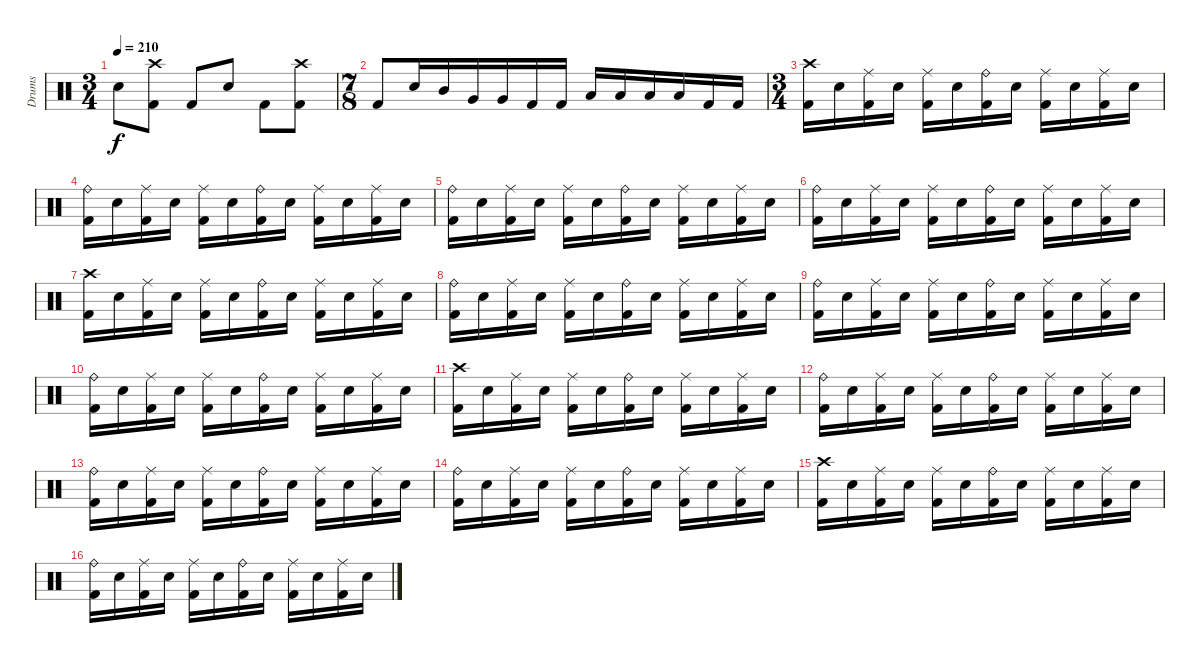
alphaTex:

\track ("Drums" "Drums") {instrument percussion}
\staff {score}
\articulation defaults
\ts (3 4)
\tempo 210
\clef neutral
\ks c "Electric Snare (hit)".8{dy f}
("Crash high (hit)" "Kick (hit) 2").8 "Kick (hit) 2".8 "Electric Snare (hit)".8 "Kick (hit) 2".8 ("Crash high (hit)" "Kick (hit) 2").8 |
\ts (7 8)
"Kick (hit) 2".8 "Electric Snare (hit)".16 "Mid Tom (hit)".16 "Very Low Tom (hit)".16 "Very Low Tom (hit)".16 "Kick (hit) 2".16 "Kick (hit) 2".16 "Low Tom (hit)".16 "Low Tom (hit)".16 "Low Tom (hit)".16 "Low Tom (hit)".16 "Kick (hit) 2".16 "Kick (hit) 2".16 |
\ts (3 4)
("Crash high (hit)" "Kick (hit) 2").16 "Electric Snare (hit)".16 ("Ride (middle)" "Kick (hit) 2").16 "Electric Snare (hit)".16 ("Ride (middle)" "Kick (hit) 2").16 "Electric Snare (hit)".16 ("Ride (bell)" "Kick (hit) 2").16 "Electric Snare (hit)".16 ("Ride (middle)" "Kick (hit) 2").16 "Electric Snare (hit)".16 ("Ride (middle)" "Kick (hit) 2").16 "Electric Snare (hit)".16 |
("Ride (bell)" "Kick (hit) 2").16 "Electric Snare (hit)".16 ("Ride (middle)" "Kick (hit) 2").16 "Electric Snare (hit)".16 ("Ride (middle)" "Kick (hit) 2").16 "Electric Snare (hit)".16 ("Ride (bell)" "Kick (hit) 2").16 "Electric Snare (hit)".16 ("Ride (middle)" "Kick (hit) 2").16 "Electric Snare (hit)".16 ("Ride (middle)" "Kick (hit) 2").16 "Electric Snare (hit)".16 |
("Ride (bell)" "Kick (hit) 2").16 "Electric Snare (hit)".16 ("Ride (middle)" "Kick (hit) 2").16 "Electric Snare (hit)".16 ("Ride (middle)" "Kick (hit) 2").16 "Electric Snare (hit)".16 ("Ride (bell)" "Kick (hit) 2").16 "Electric Snare (hit)".16 ("Ride (middle)" "Kick (hit) 2").16 "Electric Snare (hit)".16 ("Ride (middle)" "Kick (hit) 2").16 "Electric Snare (hit)".16 |
("Ride (bell)" "Kick (hit) 2").16 "Electric Snare (hit)".16 ("Ride (middle)" "Kick (hit) 2").16 "Electric Snare (hit)".16 ("Ride (middle)" "Kick (hit) 2").16 "Electric Snare (hit)".16 ("Ride (bell)" "Kick (hit) 2").16 "Electric Snare (hit)".16 ("Ride (middle)" "Kick (hit) 2").16 "Electric Snare (hit)".16 ("Ride (middle)" "Kick (hit) 2").16 "Electric Snare (hit)".16 |
("Crash high (hit)" "Kick (hit) 2").16 "Electric Snare (hit)".16 ("Ride (middle)" "Kick (hit) 2").16 "Electric Snare (hit)".16 ("Ride (middle)" "Kick (hit) 2").16 "Electric Snare (hit)".16 ("Ride (bell)" "Kick (hit) 2").16 "Electric Snare (hit)".16 ("Ride (middle)" "Kick (hit) 2").16 "Electric Snare (hit)".16 ("Ride (middle)" "Kick (hit) 2").16 "Electric Snare (hit)".16 |
("Ride (bell)" "Kick (hit) 2").16 "Electric Snare (hit)".16 ("Ride (middle)" "Kick (hit) 2").16 "Electric Snare (hit)".16 ("Ride (middle)" "Kick (hit) 2").16 "Electric Snare (hit)".16 ("Ride (bell)" "Kick (hit) 2").16 "Electric Snare (hit)".16 ("Ride (middle)" "Kick (hit) 2").16 "Electric Snare (hit)".16 ("Ride (middle)" "Kick (hit) 2").16 "Electric Snare (hit)".16 |
("Ride (bell)" "Kick (hit) 2").16 "Electric Snare (hit)".16 ("Ride (middle)" "Kick (hit) 2").16 "Electric Snare (hit)".16 ("Ride (middle)" "Kick (hit) 2").16 "Electric Snare (hit)".16 ("Ride (bell)" "Kick (hit) 2").16 "Electric Snare (hit)".16 ("Ride (middle)" "Kick (hit) 2").16 "Electric Snare (hit)".16 ("Ride (middle)" "Kick (hit) 2").16 "Electric Snare (hit)".16 |
("Ride (bell)" "Kick (hit) 2").16 "Electric Snare (hit)".16 ("Ride (middle)" "Kick (hit) 2").16 "Electric Snare (hit)".16 ("Ride (middle)" "Kick (hit) 2").16 "Electric Snare (hit)".16 ("Ride (bell)" "Kick (hit) 2").16 "Electric Snare (hit)".16 ("Ride (middle)" "Kick (hit) 2").16 "Electric Snare (hit)".16 ("Ride (middle)" "Kick (hit) 2").16 "Electric Snare (hit)".16 |
("Crash high (hit)" "Kick (hit) 2").16 "Electric Snare (hit)".16 ("Ride (middle)" "Kick (hit) 2").16 "Electric Snare (hit)".16 ("Ride (middle)" "Kick (hit) 2").16 "Electric Snare (hit)".16 ("Ride (bell)" "Kick (hit) 2").16 "Electric Snare (hit)".16 ("Ride (middle)" "Kick (hit) 2").16 "Electric Snare (hit)".16 ("Ride (middle)" "Kick (hit) 2").16 "Electric Snare (hit)".16 |
("Ride (bell)" "Kick (hit) 2").16 "Electric Snare (hit)".16 ("Ride (middle)" "Kick (hit) 2").16 "Electric Snare (hit)".16 ("Ride (middle)" "Kick (hit) 2").16 "Electric Snare (hit)".16 ("Ride (bell)" "Kick (hit) 2").16 "Electric Snare (hit)".16 ("Ride (middle)" "Kick (hit) 2").16 "Electric Snare (hit)".16 ("Ride (middle)" "Kick (hit) 2").16 "Electric Snare (hit)".16 |
("Ride (bell)" "Kick (hit) 2").16 "Electric Snare (hit)".16 ("Ride (middle)" "Kick (hit) 2").16 "Electric Snare (hit)".16 ("Ride (middle)" "Kick (hit) 2").16 "Electric Snare (hit)".16 ("Ride (bell)" "Kick (hit) 2").16 "Electric Snare (hit)".16 ("Ride (middle)" "Kick (hit) 2").16 "Electric Snare (hit)".16 ("Ride (middle)" "Kick (hit) 2").16 "Electric Snare (hit)".16 |
("Ride (bell)" "Kick (hit) 2").16 "Electric Snare (hit)".16 ("Ride (middle)" "Kick (hit) 2").16 "Electric Snare (hit)".16 ("Ride (middle)" "Kick (hit) 2").16 "Electric Snare (hit)".16 ("Ride (bell)" "Kick (hit) 2").16 "Electric Snare (hit)".16 ("Ride (middle)" "Kick (hit) 2").16 "Electric Snare (hit)".16 ("Ride (middle)" "Kick (hit) 2").16 "Electric Snare (hit)".16 |
("Crash high (hit)" "Kick (hit) 2").16 "Electric Snare (hit)".16 ("Ride (middle)" "Kick (hit) 2").16 "Electric Snare (hit)".16 ("Ride (middle)" "Kick (hit) 2").16 "Electric Snare (hit)".16 ("Ride (bell)" "Kick (hit) 2").16 "Electric Snare (hit)".16 ("Ride (middle)" "Kick (hit) 2").16 "Electric Snare (hit)".16 ("Ride (middle)" "Kick (hit) 2").16 "Electric Snare (hit)".16 |
("Ride (bell)" "Kick (hit) 2").16 "Electric Snare (hit)".16 ("Ride (middle)" "Kick (hit) 2").16 "Electric Snare (hit)".16 ("Ride (middle)" "Kick (hit) 2").16 "Electric Snare (hit)".16 ("Ride (bell)" "Kick (hit) 2").16 "Electric Snare (hit)".16 ("Ride (middle)" "Kick (hit) 2").16 "Electric Snare (hit)".16 ("Ride (middle)" "Kick (hit) 2").16 "Electric Snare (hit)".16
